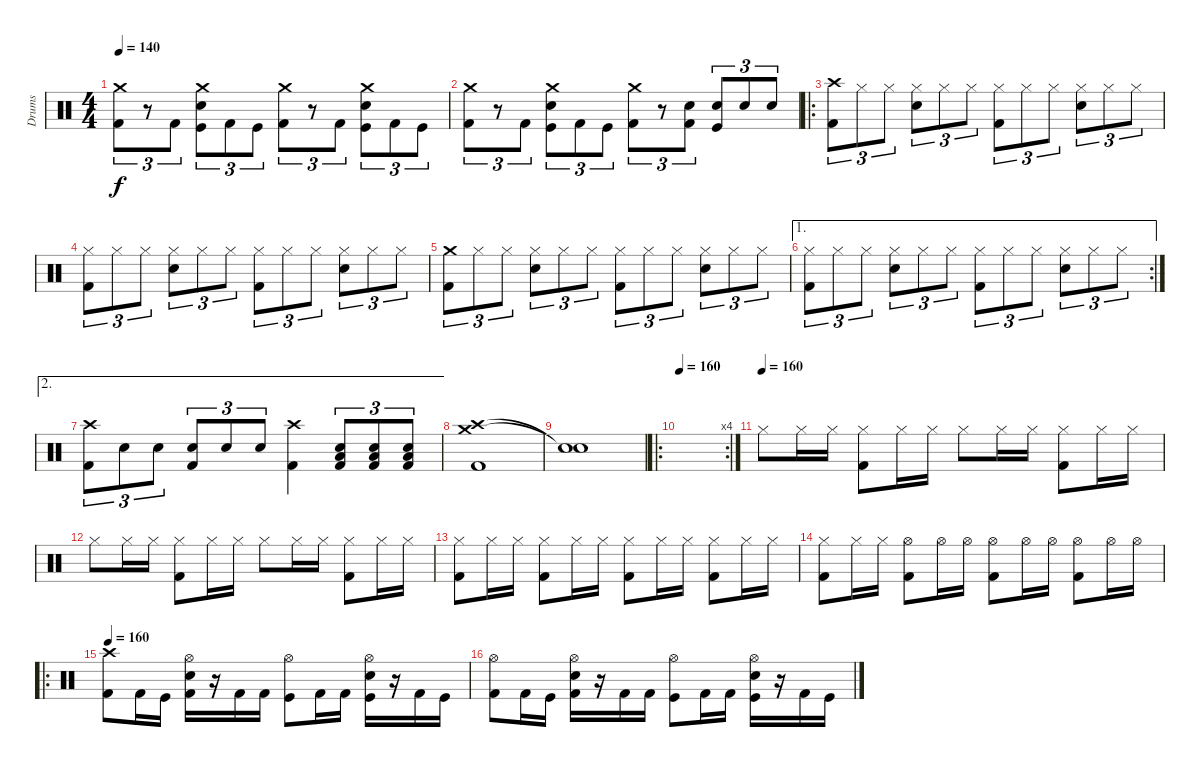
\track ("Drums" "Drums") {instrument percussion}
\staff {score}
\articulation defaults
\ts (4 4)
\tempo 140
\clef neutral
\ks c
("Crash medium (hit)" "Kick (hit) 2").8{tu (3 2) dy f} r.8{tu (3 2)} "Kick (hit) 2".8{tu (3 2)} ("Crash medium (hit)" "Snare (hit) 2" "Kick (hit)").8{tu (3 2)} "Kick (hit) 2".8{tu (3 2)} "Kick (hit)".8{tu (3 2)} ("Crash medium (hit)" "Kick (hit) 2").8{tu (3 2)} r.8{tu (3 2)} "Kick (hit) 2".8{tu (3 2)} ("Crash medium (hit)" "Snare (hit) 2" "Kick (hit)").8{tu (3 2)} "Kick (hit) 2".8{tu (3 2)} "Kick (hit)".8{tu (3 2)} |
("Crash medium (hit)" "Kick (hit) 2").8{tu (3 2)} r.8{tu (3 2)} "Kick (hit) 2".8{tu (3 2)} ("Crash medium (hit)" "Snare (hit) 2" "Kick (hit)").8{tu (3 2)} "Kick (hit) 2".8{tu (3 2)} "Kick (hit)".8{tu (3 2)} ("Crash medium (hit)" "Kick (hit) 2").8{tu (3 2)} r.8{tu (3 2)} ("Snare (hit) 2" "Kick (hit) 2").8{tu (3 2)} ("Snare (hit) 2" "Kick (hit)").8{tu (3 2)} "Snare (hit) 2".8{tu (3 2)} "Snare (hit) 2".8{tu (3 2)} |
\ro
("Crash high (hit)" "Kick (hit) 2").8{tu (3 2)} "Hi-Hat (closed)".8{tu (3 2)} "Hi-Hat (closed)".8{tu (3 2)} ("Hi-Hat (closed)" "Snare (hit) 2").8{tu (3 2)} "Hi-Hat (closed)".8{tu (3 2)} "Hi-Hat (closed)".8{tu (3 2)} ("Hi-Hat (closed)" "Kick (hit) 2").8{tu (3 2)} "Hi-Hat (closed)".8{tu (3 2)} "Hi-Hat (closed)".8{tu (3 2)} ("Hi-Hat (closed)" "Snare (hit) 2").8{tu (3 2)} "Hi-Hat (closed)".8{tu (3 2)} "Hi-Hat (closed)".8{tu (3 2)} |
("Hi-Hat (closed)" "Kick (hit) 2").8{tu (3 2)} "Hi-Hat (closed)".8{tu (3 2)} "Hi-Hat (closed)".8{tu (3 2)} ("Hi-Hat (closed)" "Snare (hit) 2").8{tu (3 2)} "Hi-Hat (closed)".8{tu (3 2)} "Hi-Hat (closed)".8{tu (3 2)} ("Hi-Hat (closed)" "Kick (hit) 2").8{tu (3 2)} "Hi-Hat (closed)".8{tu (3 2)} "Hi-Hat (closed)".8{tu (3 2)} ("Hi-Hat (closed)" "Snare (hit) 2").8{tu (3 2)} "Hi-Hat (closed)".8{tu (3 2)} "Hi-Hat (closed)".8{tu (3 2)} |
("Crash medium (hit)" "Kick (hit) 2").8{tu (3 2)} "Hi-Hat (closed)".8{tu (3 2)} "Hi-Hat (closed)".8{tu (3 2)} ("Hi-Hat (closed)" "Snare (hit) 2").8{tu (3 2)} "Hi-Hat (closed)".8{tu (3 2)} "Hi-Hat (closed)".8{tu (3 2)} ("Hi-Hat (closed)" "Kick (hit) 2").8{tu (3 2)} "Hi-Hat (closed)".8{tu (3 2)} "Hi-Hat (closed)".8{tu (3 2)} ("Hi-Hat (closed)" "Snare (hit) 2").8{tu (3 2)} "Hi-Hat (closed)".8{tu (3 2)} "Hi-Hat (closed)".8{tu (3 2)} |
\ae 1
\rc 2
("Hi-Hat (closed)" "Kick (hit) 2").8{tu (3 2)} "Hi-Hat (closed)".8{tu (3 2)} "Hi-Hat (closed)".8{tu (3 2)} ("Hi-Hat (closed)" "Snare (hit) 2").8{tu (3 2)} "Hi-Hat (closed)".8{tu (3 2)} "Hi-Hat (closed)".8{tu (3 2)} ("Hi-Hat (closed)" "Kick (hit) 2").8{tu (3 2)} "Hi-Hat (closed)".8{tu (3 2)} "Hi-Hat (closed)".8{tu (3 2)} ("Hi-Hat (closed)" "Snare (hit) 2").8{tu (3 2)} "Hi-Hat (closed)".8{tu (3 2)} "Hi-Hat (closed)".8{tu (3 2)} |
\ae 2
("Crash high (hit)" "Kick (hit) 2").8{tu (3 2)} "Snare (hit) 2".8{tu (3 2)} "Snare (hit) 2".8{tu (3 2)} ("Snare (hit) 2" "Kick (hit) 2").8{tu (3 2)} "Snare (hit) 2".8{tu (3 2)} "Snare (hit) 2".8{tu (3 2)} ("Crash high (hit)" "Kick (hit) 2").4 ("Low Floor Tom (hit)" "Snare (hit) 2" "Kick (hit) 2").8{tu (3 2)} ("Low Floor Tom (hit)" "Snare (hit) 2" "Kick (hit) 2").8{tu (3 2)} ("Low Floor Tom (hit)" "Snare (hit) 2" "Kick (hit) 2").8{tu (3 2)} |
("Crash medium (hit)" "Crash high (hit)" "Kick (hit) 2").1 |
("Snare (hit)"{t} "Snare (hit)"{t}).1 |
\ro
\rc 4
\tempo 160
|
\tempo (160)
"Hi-Hat (closed)".8 "Hi-Hat (closed)".16 "Hi-Hat (closed)".16 ("Hi-Hat (closed)" "Kick (hit) 2").8 "Hi-Hat (closed)".16 "Hi-Hat (closed)".16 "Hi-Hat (closed)".8 "Hi-Hat (closed)".16 "Hi-Hat (closed)".16 ("Hi-Hat (closed)" "Kick (hit) 2").8 "Hi-Hat (closed)".16 "Hi-Hat (closed)".16 |
"Hi-Hat (closed)".8 "Hi-Hat (closed)".16 "Hi-Hat (closed)".16 ("Hi-Hat (closed)" "Kick (hit) 2").8 "Hi-Hat (closed)".16 "Hi-Hat (closed)".16 "Hi-Hat (closed)".8 "Hi-Hat (closed)".16 "Hi-Hat (closed)".16 ("Hi-Hat (closed)" "Kick (hit) 2").8 "Hi-Hat (closed)".16 "Hi-Hat (closed)".16 |
("Hi-Hat (closed)" "Kick (hit) 2").8 "Hi-Hat (closed)".16 "Hi-Hat (closed)".16 ("Hi-Hat (closed)" "Kick (hit) 2").8 "Hi-Hat (closed)".16 "Hi-Hat (closed)".16 ("Hi-Hat (closed)" "Kick (hit) 2").8 "Hi-Hat (closed)".16 "Hi-Hat (closed)".16 ("Hi-Hat (closed)" "Kick (hit) 2").8 "Hi-Hat (closed)".16 "Hi-Hat (closed)".16 |
("Hi-Hat (closed)" "Kick (hit) 2").8 "Hi-Hat (closed)".16 "Hi-Hat (closed)".16 ("Hi-Hat (open)" "Kick (hit) 2").8 "Hi-Hat (open)".16 "Hi-Hat (open)".16 ("Hi-Hat (open)" "Kick (hit) 2").8 "Hi-Hat (open)".16 "Hi-Hat (open)".16 ("Hi-Hat (open)" "Kick (hit) 2").8 "Hi-Hat (open)".16 "Hi-Hat (open)".16 |
\ro
\tempo 160
("Crash high (hit)" "Kick (hit) 2").8 "Kick (hit) 2".16 "Kick (hit)".16 ("Hi-Hat (open)" "Snare (hit) 2" "Kick (hit) 2").16 r.16 "Kick (hit) 2".16 "Kick (hit) 2".16 ("Hi-Hat (open)" "Kick (hit)").8 "Kick (hit) 2".16 "Kick (hit) 2".16 ("Hi-Hat (open)" "Snare (hit) 2" "Kick (hit)").16 r.16 "Kick (hit) 2".16 "Kick (hit)".16 |
("Hi-Hat (open)" "Kick (hit) 2").8 "Kick (hit) 2".16 "Kick (hit)".16 ("Hi-Hat (open)" "Snare (hit) 2" "Kick (hit) 2").16 r.16 "Kick (hit) 2".16 "Kick (hit) 2".16 ("Hi-Hat (open)" "Kick (hit)").8 "Kick (hit) 2".16 "Kick (hit) 2".16 ("Hi-Hat (open)" "Snare (hit) 2" "Kick (hit)").16 r.16 "Kick (hit) 2".16 "Kick (hit)".16
